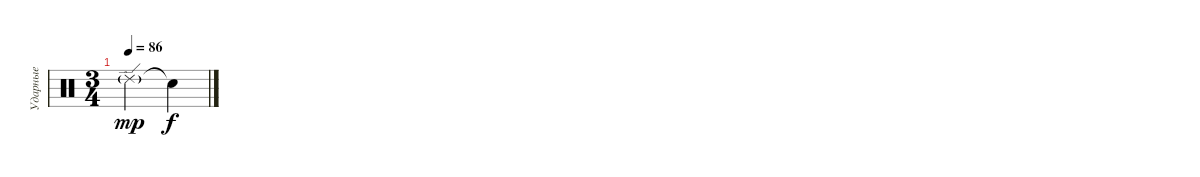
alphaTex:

\track ("Ударные" "Ударные") {instrument percussion}
\staff {score}
\articulation defaults
\ts (3 4)
\tempo 86
\clef neutral
\ks c "Ride (edge) 2"{g}.2{dy mp} "Snare (hit)"{t}.4{dy f}
